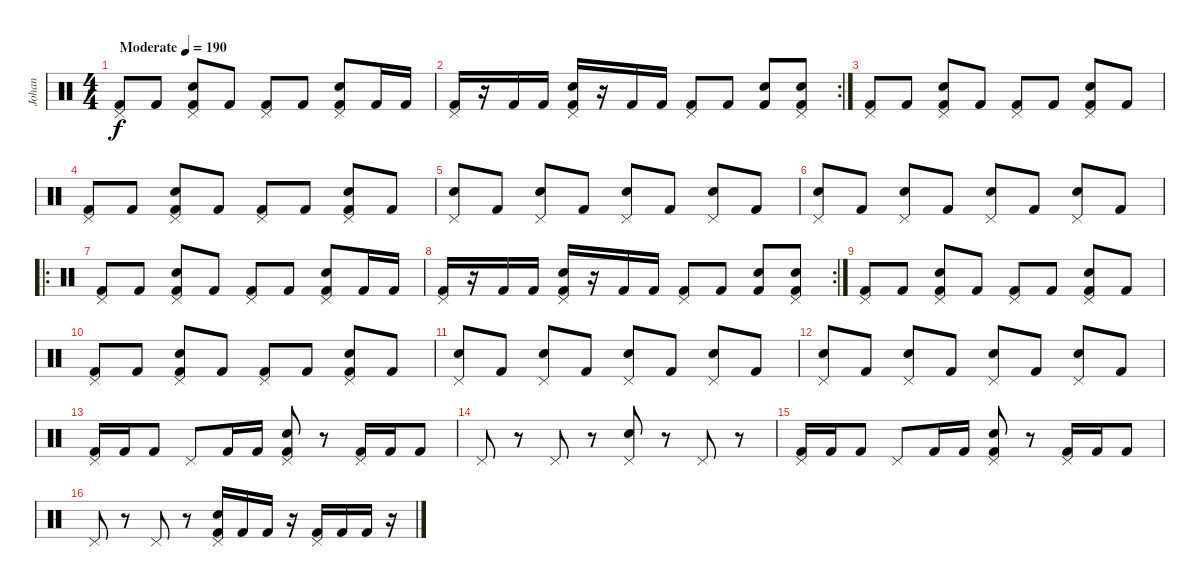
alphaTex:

\track ("Johan" "Johan") {instrument percussion}
\staff {score}
\articulation defaults
\ts (4 4)
\tempo (190 "Moderate")
\clef neutral
\ks c
("Pedal Hi-Hat (hit)" "Kick (hit) 2").8{dy f} "Kick (hit) 2".8 ("Electric Snare (hit)" "Pedal Hi-Hat (hit)" "Kick (hit) 2").8 "Kick (hit) 2".8 ("Pedal Hi-Hat (hit)" "Kick (hit) 2").8 "Kick (hit) 2".8 ("Electric Snare (hit)" "Pedal Hi-Hat (hit)" "Kick (hit) 2").8 "Kick (hit) 2".16 "Kick (hit) 2".16 |
\rc 2
("Pedal Hi-Hat (hit)" "Kick (hit) 2").16 r.16 "Kick (hit) 2".16 "Kick (hit) 2".16 ("Electric Snare (hit)" "Pedal Hi-Hat (hit)" "Kick (hit) 2").16 r.16 "Kick (hit) 2".16 "Kick (hit) 2".16 ("Pedal Hi-Hat (hit)" "Kick (hit) 2").8 "Kick (hit) 2".8 ("Electric Snare (hit)" "Kick (hit) 2").8 ("Electric Snare (hit)" "Pedal Hi-Hat (hit)" "Kick (hit) 2").8 |
("Pedal Hi-Hat (hit)" "Kick (hit) 2").8 "Kick (hit) 2".8 ("Electric Snare (hit)" "Pedal Hi-Hat (hit)" "Kick (hit) 2").8 "Kick (hit) 2".8 ("Pedal Hi-Hat (hit)" "Kick (hit) 2").8 "Kick (hit) 2".8 ("Electric Snare (hit)" "Pedal Hi-Hat (hit)" "Kick (hit) 2").8 "Kick (hit) 2".8 |
("Pedal Hi-Hat (hit)" "Kick (hit) 2").8 "Kick (hit) 2".8 ("Electric Snare (hit)" "Pedal Hi-Hat (hit)" "Kick (hit) 2").8 "Kick (hit) 2".8 ("Pedal Hi-Hat (hit)" "Kick (hit) 2").8 "Kick (hit) 2".8 ("Electric Snare (hit)" "Pedal Hi-Hat (hit)" "Kick (hit) 2").8 "Kick (hit) 2".8 |
("Electric Snare (hit)" "Pedal Hi-Hat (hit)").8 "Kick (hit) 2".8 ("Electric Snare (hit)" "Pedal Hi-Hat (hit)").8 "Kick (hit) 2".8 ("Electric Snare (hit)" "Pedal Hi-Hat (hit)").8 "Kick (hit) 2".8 ("Electric Snare (hit)" "Pedal Hi-Hat (hit)").8 "Kick (hit) 2".8 |
("Electric Snare (hit)" "Pedal Hi-Hat (hit)").8 "Kick (hit) 2".8 ("Electric Snare (hit)" "Pedal Hi-Hat (hit)").8 "Kick (hit) 2".8 ("Electric Snare (hit)" "Pedal Hi-Hat (hit)").8 "Kick (hit) 2".8 ("Electric Snare (hit)" "Pedal Hi-Hat (hit)").8 "Kick (hit) 2".8 |
\ro
("Pedal Hi-Hat (hit)" "Kick (hit) 2").8 "Kick (hit) 2".8 ("Electric Snare (hit)" "Pedal Hi-Hat (hit)" "Kick (hit) 2").8 "Kick (hit) 2".8 ("Pedal Hi-Hat (hit)" "Kick (hit) 2").8 "Kick (hit) 2".8 ("Electric Snare (hit)" "Pedal Hi-Hat (hit)" "Kick (hit) 2").8 "Kick (hit) 2".16 "Kick (hit) 2".16 |
\rc 2
("Pedal Hi-Hat (hit)" "Kick (hit) 2").16 r.16 "Kick (hit) 2".16 "Kick (hit) 2".16 ("Electric Snare (hit)" "Pedal Hi-Hat (hit)" "Kick (hit) 2").16 r.16 "Kick (hit) 2".16 "Kick (hit) 2".16 ("Pedal Hi-Hat (hit)" "Kick (hit) 2").8 "Kick (hit) 2".8 ("Electric Snare (hit)" "Kick (hit) 2").8 ("Electric Snare (hit)" "Pedal Hi-Hat (hit)" "Kick (hit) 2").8 |
("Pedal Hi-Hat (hit)" "Kick (hit) 2").8 "Kick (hit) 2".8 ("Electric Snare (hit)" "Pedal Hi-Hat (hit)" "Kick (hit) 2").8 "Kick (hit) 2".8 ("Pedal Hi-Hat (hit)" "Kick (hit) 2").8 "Kick (hit) 2".8 ("Electric Snare (hit)" "Pedal Hi-Hat (hit)" "Kick (hit) 2").8 "Kick (hit) 2".8 |
("Pedal Hi-Hat (hit)" "Kick (hit) 2").8 "Kick (hit) 2".8 ("Electric Snare (hit)" "Pedal Hi-Hat (hit)" "Kick (hit) 2").8 "Kick (hit) 2".8 ("Pedal Hi-Hat (hit)" "Kick (hit) 2").8 "Kick (hit) 2".8 ("Electric Snare (hit)" "Pedal Hi-Hat (hit)" "Kick (hit) 2").8 "Kick (hit) 2".8 |
("Electric Snare (hit)" "Pedal Hi-Hat (hit)").8 "Kick (hit) 2".8 ("Electric Snare (hit)" "Pedal Hi-Hat (hit)").8 "Kick (hit) 2".8 ("Electric Snare (hit)" "Pedal Hi-Hat (hit)").8 "Kick (hit) 2".8 ("Electric Snare (hit)" "Pedal Hi-Hat (hit)").8 "Kick (hit) 2".8 |
("Electric Snare (hit)" "Pedal Hi-Hat (hit)").8 "Kick (hit) 2".8 ("Electric Snare (hit)" "Pedal Hi-Hat (hit)").8 "Kick (hit) 2".8 ("Electric Snare (hit)" "Pedal Hi-Hat (hit)").8 "Kick (hit) 2".8 ("Electric Snare (hit)" "Pedal Hi-Hat (hit)").8 "Kick (hit) 2".8 |
("Pedal Hi-Hat (hit)" "Kick (hit) 2").16 "Kick (hit) 2".16 "Kick (hit) 2".8 "Pedal Hi-Hat (hit)".8 "Kick (hit) 2".16 "Kick (hit) 2".16 ("Electric Snare (hit)" "Pedal Hi-Hat (hit)" "Kick (hit) 2").8 r.8 ("Pedal Hi-Hat (hit)" "Kick (hit) 2").16 "Kick (hit) 2".16 "Kick (hit) 2".8 |
"Pedal Hi-Hat (hit)".8 r.8 "Pedal Hi-Hat (hit)".8 r.8 ("Electric Snare (hit)" "Pedal Hi-Hat (hit)").8 r.8 "Pedal Hi-Hat (hit)".8 r.8 |
("Pedal Hi-Hat (hit)" "Kick (hit) 2").16 "Kick (hit) 2".16 "Kick (hit) 2".8 "Pedal Hi-Hat (hit)".8 "Kick (hit) 2".16 "Kick (hit) 2".16 ("Electric Snare (hit)" "Pedal Hi-Hat (hit)" "Kick (hit) 2").8 r.8 ("Pedal Hi-Hat (hit)" "Kick (hit) 2").16 "Kick (hit) 2".16 "Kick (hit) 2".8 |
"Pedal Hi-Hat (hit)".8 r.8 "Pedal Hi-Hat (hit)".8 r.8 ("Electric Snare (hit)" "Pedal Hi-Hat (hit)" "Kick (hit) 2").16 "Kick (hit) 2".16 "Kick (hit) 2".16 r.16 ("Pedal Hi-Hat (hit)" "Kick (hit) 2").16 "Kick (hit) 2".16 "Kick (hit) 2".16 r.16
